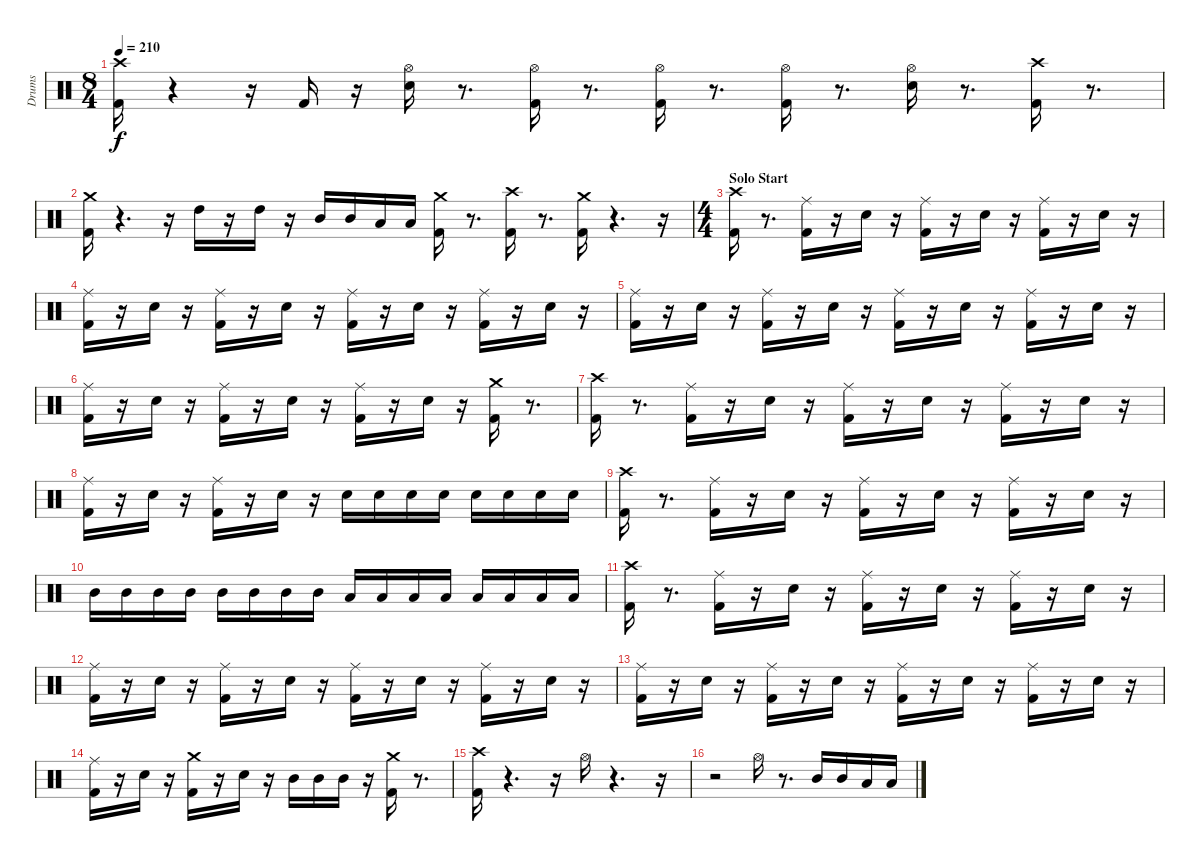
\track ("Drums" "Drums") {instrument percussion}
\staff {score}
\articulation defaults
\ts (8 4)
\tempo 210
\clef neutral
\ks c
("Crash high (hit)" "Kick (hit) 2").16{dy f} r.4 r.16 "Kick (hit) 2".16 r.16 ("Hi-Hat (open)" "Snare (hit) 2").16 r.8{d} ("Hi-Hat (open)" "Kick (hit) 2").16 r.8{d} ("Hi-Hat (open)" "Kick (hit) 2").16 r.8{d} ("Kick (hit) 2" "Hi-Hat (open)").16 r.8{d} ("Snare (hit) 2" "Hi-Hat (open)").16 r.8{d} ("Kick (hit) 2" "Crash high (hit)").16 r.8{d} |
("Kick (hit) 2" "Crash medium (hit)").16 r.4{d} r.16 "High Tom (hit)".16 r.16 "High Tom (hit)".16 r.16 "Mid Tom (hit)".16 "Mid Tom (hit)".16 "Low Tom (hit)".16 "Low Tom (hit)".16 ("Crash medium (hit)" "Kick (hit) 2").16 r.8{d} ("Crash high (hit)" "Kick (hit) 2").16 r.8{d} ("Crash medium (hit)" "Kick (hit) 2").16 r.4{d} r.16 |
\ts (4 4)
\section ("" "Solo Start")
("Kick (hit) 2" "Crash high (hit)").16 r.8{d} ("Ride (middle)" "Kick (hit) 2").16 r.16 "Snare (hit) 2".16 r.16 ("Kick (hit) 2" "Ride (middle)").16 r.16 "Snare (hit) 2".16 r.16 ("Ride (middle)" "Kick (hit) 2").16 r.16 "Snare (hit) 2".16 r.16 |
("Kick (hit) 2" "Ride (middle)").16 r.16 "Snare (hit) 2".16 r.16 ("Ride (middle)" "Kick (hit) 2").16 r.16 "Snare (hit) 2".16 r.16 ("Kick (hit) 2" "Ride (middle)").16 r.16 "Snare (hit) 2".16 r.16 ("Kick (hit) 2" "Ride (middle)").16 r.16 "Snare (hit) 2".16 r.16 |
("Kick (hit) 2" "Ride (middle)").16 r.16 "Snare (hit) 2".16 r.16 ("Kick (hit) 2" "Ride (middle)").16 r.16 "Snare (hit) 2".16 r.16 ("Ride (middle)" "Kick (hit) 2").16 r.16 "Snare (hit) 2".16 r.16 ("Ride (middle)" "Kick (hit) 2").16 r.16 "Snare (hit) 2".16 r.16 |
("Kick (hit) 2" "Ride (middle)").16 r.16 "Snare (hit) 2".16 r.16 ("Ride (middle)" "Kick (hit) 2").16 r.16 "Snare (hit) 2".16 r.16 ("Ride (middle)" "Kick (hit) 2").16 r.16 "Snare (hit) 2".16 r.16 ("Kick (hit) 2" "Crash medium (hit)").16 r.8{d} |
("Crash high (hit)" "Kick (hit) 2").16 r.8{d} ("Kick (hit) 2" "Ride (middle)").16 r.16 "Snare (hit) 2".16 r.16 ("Ride (middle)" "Kick (hit) 2").16 r.16 "Snare (hit) 2".16 r.16 ("Ride (middle)" "Kick (hit) 2").16 r.16 "Snare (hit) 2".16 r.16 |
("Kick (hit) 2" "Ride (middle)").16 r.16 "Snare (hit) 2".16 r.16 ("Ride (middle)" "Kick (hit) 2").16 r.16 "Snare (hit) 2".16 r.16 "Snare (hit) 2".16 "Snare (hit) 2".16 "Snare (hit) 2".16 "Snare (hit) 2".16 "Snare (hit) 2".16 "Snare (hit) 2".16 "Snare (hit) 2".16 "Snare (hit) 2".16 |
("Crash high (hit)" "Kick (hit) 2").16 r.8{d} ("Ride (middle)" "Kick (hit) 2").16 r.16 "Snare (hit) 2".16 r.16 ("Ride (middle)" "Kick (hit) 2").16 r.16 "Snare (hit) 2".16 r.16 ("Kick (hit) 2" "Ride (middle)").16 r.16 "Snare (hit) 2".16 r.16 |
"Mid Tom (hit)".16 "Mid Tom (hit)".16 "Mid Tom (hit)".16 "Mid Tom (hit)".16 "Mid Tom (hit)".16 "Mid Tom (hit)".16 "Mid Tom (hit)".16 "Mid Tom (hit)".16 "Low Tom (hit)".16 "Low Tom (hit)".16 "Low Tom (hit)".16 "Low Tom (hit)".16 "Low Tom (hit)".16 "Low Tom (hit)".16 "Low Tom (hit)".16 "Low Tom (hit)".16 |
("Kick (hit) 2" "Crash high (hit)").16 r.8{d} ("Ride (middle)" "Kick (hit) 2").16 r.16 "Snare (hit) 2".16 r.16 ("Ride (middle)" "Kick (hit) 2").16 r.16 "Snare (hit) 2".16 r.16 ("Kick (hit) 2" "Ride (middle)").16 r.16 "Snare (hit) 2".16 r.16 |
("Ride (middle)" "Kick (hit) 2").16 r.16 "Snare (hit) 2".16 r.16 ("Ride (middle)" "Kick (hit) 2").16 r.16 "Snare (hit) 2".16 r.16 ("Ride (middle)" "Kick (hit) 2").16 r.16 "Snare (hit) 2".16 r.16 ("Ride (middle)" "Kick (hit) 2").16 r.16 "Snare (hit) 2".16 r.16 |
("Ride (middle)" "Kick (hit) 2").16 r.16 "Snare (hit) 2".16 r.16 ("Kick (hit) 2" "Ride (middle)").16 r.16 "Snare (hit) 2".16 r.16 ("Ride (middle)" "Kick (hit) 2").16 r.16 "Snare (hit) 2".16 r.16 ("Kick (hit) 2" "Ride (middle)").16 r.16 "Snare (hit) 2".16 r.16 |
("Ride (middle)" "Kick (hit) 2").16 r.16 "Snare (hit) 2".16 r.16 ("Crash medium (hit)" "Kick (hit) 2").16 r.16 "Snare (hit) 2".16 r.16 "Mid Tom (hit)".16 "Mid Tom (hit)".16 "Mid Tom (hit)".16 r.16 ("Kick (hit) 2" "Crash medium (hit)").16 r.8{d} |
("Crash high (hit)" "Kick (hit) 2").16 r.4{d} r.16 "Hi-Hat (open)".16 r.4{d} r.16 |
r.2 "Hi-Hat (open)".16 r.8{d} "Mid Tom (hit)".16 "Mid Tom (hit)".16 "Low Tom (hit)".16 "Low Tom (hit)".16
